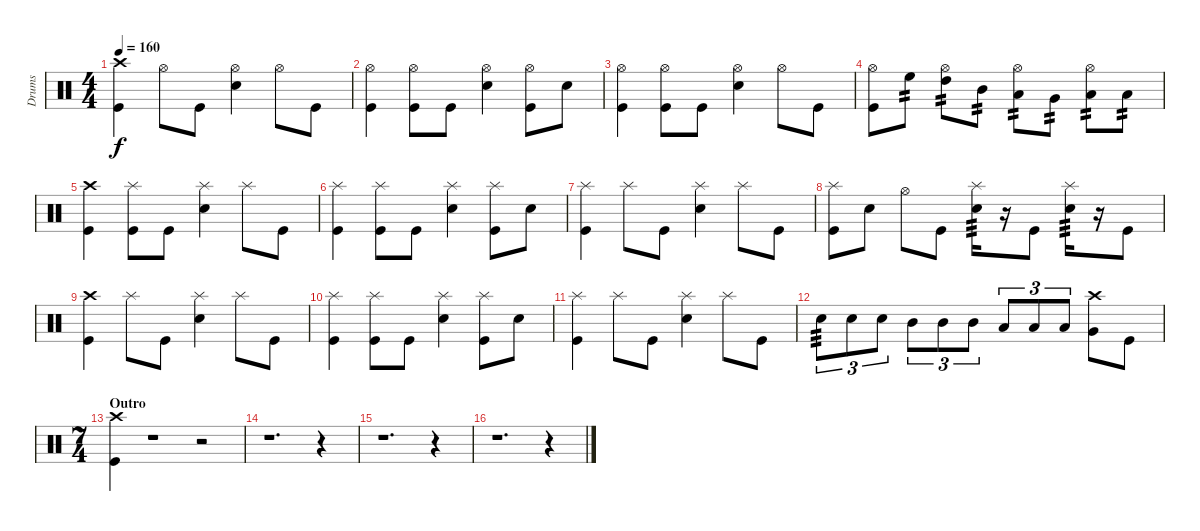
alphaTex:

\track ("Drums" "Drums") {instrument percussion}
\staff {score}
\articulation defaults
\ts (4 4)
\tempo 160
\clef neutral
\ks c
("Crash high (hit)" "Kick (hit)").4{dy f} "Hi-Hat (open)".8 "Kick (hit)".8 ("Hi-Hat (open)" "Snare (hit) 2").4 "Hi-Hat (open)".8 "Kick (hit)".8 |
("Hi-Hat (open)" "Kick (hit)").4 ("Hi-Hat (open)" "Kick (hit)").8 "Kick (hit)".8 ("Hi-Hat (open)" "Snare (hit) 2").4 ("Hi-Hat (open)" "Kick (hit)").8 "Snare (hit) 2".8 |
("Hi-Hat (open)" "Kick (hit)").4 ("Hi-Hat (open)" "Kick (hit)").8 "Kick (hit)".8 ("Hi-Hat (open)" "Snare (hit) 2").4 "Hi-Hat (open)".8 "Kick (hit)".8 |
("Hi-Hat (open)" "Kick (hit)").8 "High Floor Tom (hit)".8{tp 2} ("Hi-Hat (open)" "High Tom (hit)").8{tp 2} "Mid Tom (hit)".8{tp 2} ("Hi-Hat (open)" "Low Tom (hit)").8{tp 2} "Very Low Tom (hit)".8{tp 2} ("Hi-Hat (open)" "Low Floor Tom (hit)").8{tp 2} "Low Floor Tom (hit)".8{tp 2} |
("Crash high (hit)" "Kick (hit)").4 ("Splash (hit)" "Kick (hit)").8 "Kick (hit)".8 ("Splash (hit)" "Snare (hit) 2").4 "Splash (hit)".8 "Kick (hit)".8 |
("Splash (hit)" "Kick (hit)").4 ("Splash (hit)" "Kick (hit)").8 "Kick (hit)".8 ("Splash (hit)" "Snare (hit) 2").4 ("Splash (hit)" "Kick (hit)").8 "Snare (hit) 2".8 |
("Splash (hit)" "Kick (hit)").4 "Splash (hit)".8 "Kick (hit)".8 ("Splash (hit)" "Snare (hit) 2").4 "Splash (hit)".8 "Kick (hit)".8 |
("Splash (hit)" "Kick (hit)").8 "Snare (hit) 2".8 "Hi-Hat (open)".8 "Kick (hit)".8 ("Splash (hit)" "Snare (hit) 2").16{tp 3} r.16 "Kick (hit)".8 ("Splash (hit)" "Snare (hit) 2").16{tp 3} r.16 "Kick (hit)".8 |
("Crash high (hit)" "Kick (hit)").4 "Splash (hit)".8 "Kick (hit)".8 ("Splash (hit)" "Snare (hit) 2").4 "Splash (hit)".8 "Kick (hit)".8 |
("Splash (hit)" "Kick (hit)").4 ("Splash (hit)" "Kick (hit)").8 "Kick (hit)".8 ("Splash (hit)" "Snare (hit) 2").4 ("Splash (hit)" "Kick (hit)").8 "Snare (hit) 2".8 |
("Splash (hit)" "Kick (hit)").4 "Splash (hit)".8 "Kick (hit)".8 ("Splash (hit)" "Snare (hit) 2").4 "Splash (hit)".8 "Kick (hit)".8 |
"Snare (hit) 2".8{tu (3 2) tp 3} "Snare (hit) 2".8{tu (3 2)} "Snare (hit) 2".8{tu (3 2)} "Mid Tom (hit)".8{tu (3 2)} "Mid Tom (hit)".8{tu (3 2)} "Mid Tom (hit)".8{tu (3 2)} "Low Tom (hit)".8{tu (3 2)} "Low Tom (hit)".8{tu (3 2)} "Low Tom (hit)".8{tu (3 2)} ("Crash high (hit)" "Very Low Tom (hit)").8 "Kick (hit)".8 |
\ts (7 4)
\section ("" "Outro")
("Crash high (hit)" "Kick (hit)").4 r.1 r.2 |
r.1{d} r.4 |
r.1{d} r.4 |
r.1{d} r.4
